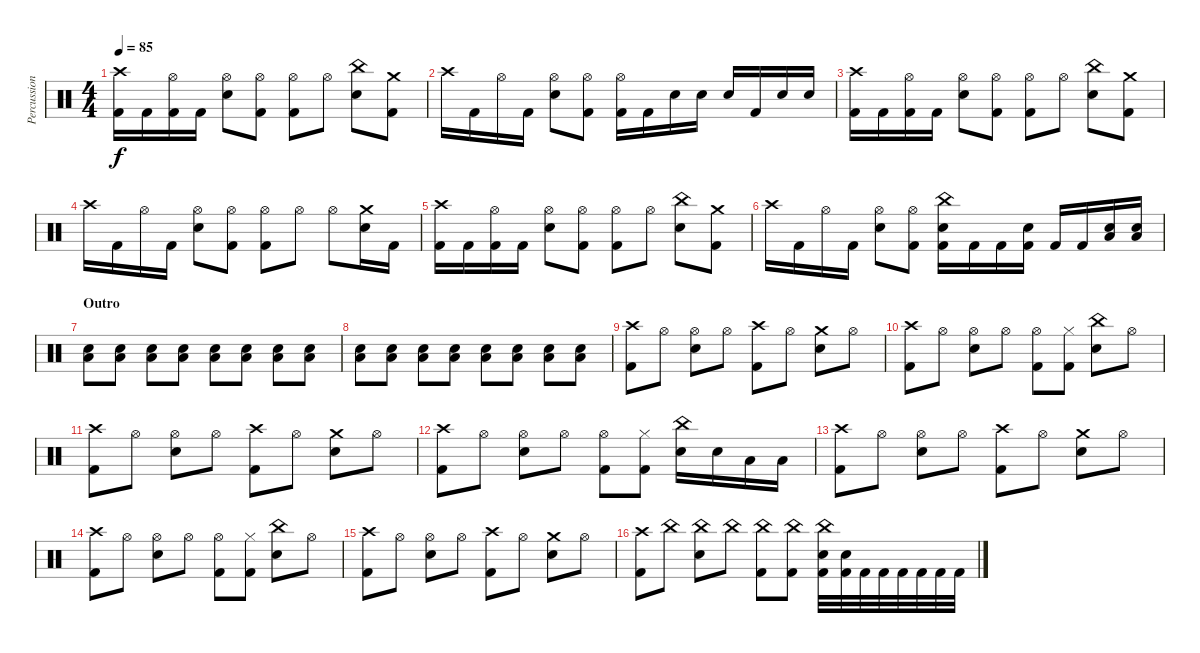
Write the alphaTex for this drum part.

\track ("Percussions" "Percussion") {instrument percussion}
\staff {score}
\articulation defaults
\ts (4 4)
\tempo 85
\clef neutral
\ks c
("Crash high (hit)" "Kick (hit) 2").16{dy f} "Kick (hit) 2".16 ("Hi-Hat (open)" "Kick (hit) 2").16 "Kick (hit) 2".16 ("Hi-Hat (open)" "Snare (hit) 2").8 ("Hi-Hat (open)" "Kick (hit) 2").8 ("Hi-Hat (open)" "Kick (hit) 2").8 "Hi-Hat (open)".8 ("China (hit)" "Snare (hit) 2").8 ("Crash medium (hit)" "Kick (hit) 2").8 |
"Crash high (hit)".16 "Kick (hit) 2".16 "Hi-Hat (open)".16 "Kick (hit) 2".16 ("Hi-Hat (open)" "Snare (hit) 2").8 ("Hi-Hat (open)" "Kick (hit) 2").8 ("Hi-Hat (open)" "Kick (hit) 2").16 "Kick (hit) 2".16 "Snare (hit) 2".16 "Snare (hit) 2".16 "Snare (hit) 2".16 "Kick (hit) 2".16 "Snare (hit) 2".16 "Snare (hit) 2".16 |
("Crash high (hit)" "Kick (hit) 2").16 "Kick (hit) 2".16 ("Hi-Hat (open)" "Kick (hit) 2").16 "Kick (hit) 2".16 ("Hi-Hat (open)" "Snare (hit) 2").8 ("Hi-Hat (open)" "Kick (hit) 2").8 ("Hi-Hat (open)" "Kick (hit) 2").8 "Hi-Hat (open)".8 ("China (hit)" "Snare (hit) 2").8 ("Crash medium (hit)" "Kick (hit) 2").8 |
"Crash high (hit)".16 "Kick (hit) 2".16 "Hi-Hat (open)".16 "Kick (hit) 2".16 ("Hi-Hat (open)" "Snare (hit) 2").8 ("Hi-Hat (open)" "Kick (hit) 2").8 ("Hi-Hat (open)" "Kick (hit) 2").8 "Hi-Hat (open)".8 "Hi-Hat (open)".8 ("Crash medium (hit)" "Snare (hit) 2").16 "Kick (hit) 2".16 |
("Crash high (hit)" "Kick (hit) 2").16 "Kick (hit) 2".16 ("Hi-Hat (open)" "Kick (hit) 2").16 "Kick (hit) 2".16 ("Hi-Hat (open)" "Snare (hit) 2").8 ("Hi-Hat (open)" "Kick (hit) 2").8 ("Hi-Hat (open)" "Kick (hit) 2").8 "Hi-Hat (open)".8 ("China (hit)" "Snare (hit) 2").8 ("Crash medium (hit)" "Kick (hit) 2").8 |
"Crash high (hit)".16 "Kick (hit) 2".16 "Hi-Hat (open)".16 "Kick (hit) 2".16 ("Hi-Hat (open)" "Snare (hit) 2").8 ("Hi-Hat (open)" "Kick (hit) 2").8 ("China (hit)" "Snare (hit) 2" "Kick (hit) 2").16 "Kick (hit) 2".16 "Kick (hit) 2".16 ("Snare (hit) 2" "Kick (hit) 2").16 "Kick (hit) 2".16 "Kick (hit) 2".16 ("Snare (hit) 2" "Low Tom (hit)").16 ("Snare (hit) 2" "Low Tom (hit)").16 |
\section ("" "Outro")
("Snare (hit) 2" "Low Tom (hit)").8{volume 4} ("Snare (hit) 2" "Low Tom (hit)").8{volume 14} ("Snare (hit) 2" "Low Tom (hit)").8 ("Snare (hit) 2" "Low Tom (hit)").8 ("Snare (hit) 2" "Low Tom (hit)").8 ("Snare (hit) 2" "Low Tom (hit)").8 ("Snare (hit) 2" "Low Tom (hit)").8 ("Snare (hit) 2" "Low Tom (hit)").8 |
("Snare (hit) 2" "Low Tom (hit)").8 ("Snare (hit) 2" "Low Tom (hit)").8 ("Snare (hit) 2" "Low Tom (hit)").8 ("Snare (hit) 2" "Low Tom (hit)").8 ("Snare (hit) 2" "Low Tom (hit)").8 ("Snare (hit) 2" "Low Tom (hit)").8 ("Snare (hit) 2" "Low Tom (hit)").8 ("Snare (hit) 2" "Low Tom (hit)").8 |
("Crash high (hit)" "Kick (hit) 2").8 "Hi-Hat (open)".8 ("Hi-Hat (open)" "Snare (hit) 2").8 "Hi-Hat (open)".8 ("Crash high (hit)" "Kick (hit) 2").8 "Hi-Hat (open)".8 ("Crash medium (hit)" "Snare (hit) 2").8 "Hi-Hat (open)".8 |
("Crash high (hit)" "Kick (hit) 2").8 "Hi-Hat (open)".8 ("Hi-Hat (open)" "Snare (hit) 2").8 "Hi-Hat (open)".8 ("Hi-Hat (open)" "Kick (hit) 2").8 ("Hi-Hat (closed)" "Kick (hit) 2").8 ("China (hit)" "Snare (hit) 2").8 "Hi-Hat (open)".8 |
("Crash high (hit)" "Kick (hit) 2").8 "Hi-Hat (open)".8 ("Hi-Hat (open)" "Snare (hit) 2").8 "Hi-Hat (open)".8 ("Crash high (hit)" "Kick (hit) 2").8 "Hi-Hat (open)".8 ("Crash medium (hit)" "Snare (hit) 2").8 "Hi-Hat (open)".8 |
("Crash high (hit)" "Kick (hit) 2").8 "Hi-Hat (open)".8 ("Hi-Hat (open)" "Snare (hit) 2").8 "Hi-Hat (open)".8 ("Hi-Hat (open)" "Kick (hit) 2").8 ("Hi-Hat (closed)" "Kick (hit) 2").8 ("China (hit)" "Snare (hit) 2").16 "Snare (hit) 2".16 "Low Floor Tom (hit)".16 "Low Floor Tom (hit)".16 |
("Crash high (hit)" "Kick (hit) 2").8 "Hi-Hat (open)".8 ("Hi-Hat (open)" "Snare (hit) 2").8 "Hi-Hat (open)".8 ("Crash high (hit)" "Kick (hit) 2").8 "Hi-Hat (open)".8 ("Crash medium (hit)" "Snare (hit) 2").8 "Hi-Hat (open)".8 |
("Crash high (hit)" "Kick (hit) 2").8 "Hi-Hat (open)".8 ("Hi-Hat (open)" "Snare (hit) 2").8 "Hi-Hat (open)".8 ("Hi-Hat (open)" "Kick (hit) 2").8 ("Hi-Hat (closed)" "Kick (hit) 2").8 ("China (hit)" "Snare (hit) 2").8 "Hi-Hat (open)".8 |
("Crash high (hit)" "Kick (hit) 2").8 "Hi-Hat (open)".8 ("Hi-Hat (open)" "Snare (hit) 2").8 "Hi-Hat (open)".8 ("Crash high (hit)" "Kick (hit) 2").8 "Hi-Hat (open)".8 ("Crash medium (hit)" "Snare (hit) 2").8 "Hi-Hat (open)".8 |
("Crash high (hit)" "Kick (hit) 2").8 "China (hit)".8 ("China (hit)" "Snare (hit) 2").8 "China (hit)".8 ("China (hit)" "Kick (hit) 2").8 ("China (hit)" "Kick (hit) 2").8 ("China (hit)" "Snare (hit) 2" "Kick (hit) 2").32 ("Snare (hit) 2" "Kick (hit) 2").32 "Kick (hit) 2".32 "Kick (hit) 2".32 "Kick (hit) 2".32 "Kick (hit) 2".32 "Kick (hit) 2".32 "Kick (hit) 2".32
